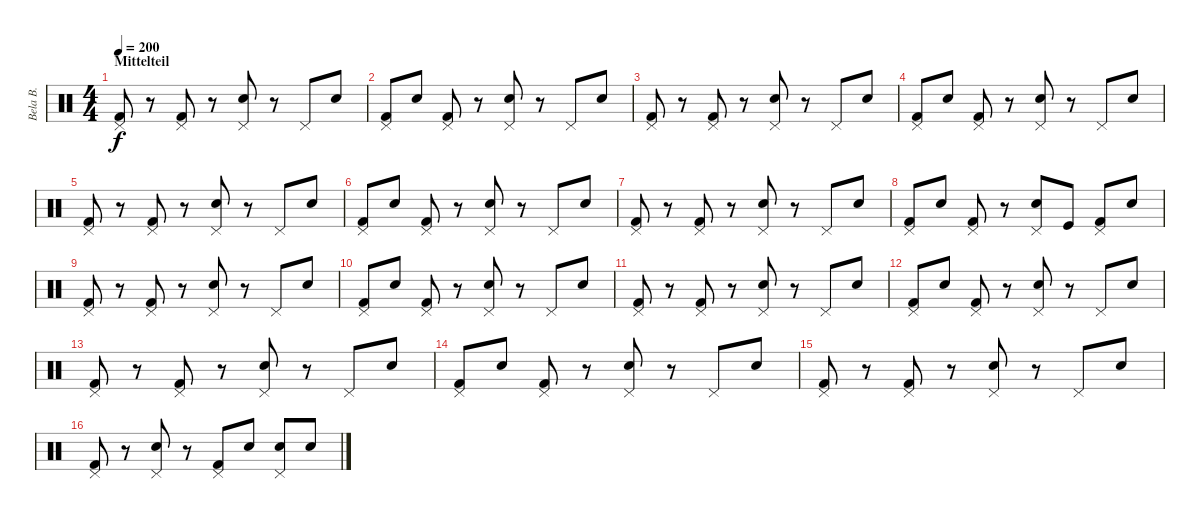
\track ("Bela B. " "Bela B. ") {instrument percussion}
\staff {score}
\articulation defaults
\ts (4 4)
\section ("" "Mittelteil")
\tempo 200
\clef neutral
\ks c
("Pedal Hi-Hat (hit)" "Kick (hit) 2").8{dy f} r.8 ("Pedal Hi-Hat (hit)" "Kick (hit) 2").8 r.8 ("Pedal Hi-Hat (hit)" "Electric Snare (hit)").8 r.8 "Pedal Hi-Hat (hit)".8 "Electric Snare (hit)".8 |
("Pedal Hi-Hat (hit)" "Kick (hit) 2").8 "Electric Snare (hit)".8 ("Pedal Hi-Hat (hit)" "Kick (hit) 2").8 r.8 ("Pedal Hi-Hat (hit)" "Electric Snare (hit)").8 r.8 "Pedal Hi-Hat (hit)".8 "Electric Snare (hit)".8 |
("Pedal Hi-Hat (hit)" "Kick (hit) 2").8 r.8 ("Pedal Hi-Hat (hit)" "Kick (hit) 2").8 r.8 ("Pedal Hi-Hat (hit)" "Electric Snare (hit)").8 r.8 "Pedal Hi-Hat (hit)".8 "Electric Snare (hit)".8 |
("Pedal Hi-Hat (hit)" "Kick (hit) 2").8 "Electric Snare (hit)".8 ("Pedal Hi-Hat (hit)" "Kick (hit) 2").8 r.8 ("Pedal Hi-Hat (hit)" "Electric Snare (hit)").8 r.8 "Pedal Hi-Hat (hit)".8 "Electric Snare (hit)".8 |
("Pedal Hi-Hat (hit)" "Kick (hit) 2").8 r.8 ("Pedal Hi-Hat (hit)" "Kick (hit) 2").8 r.8 ("Pedal Hi-Hat (hit)" "Electric Snare (hit)").8 r.8 "Pedal Hi-Hat (hit)".8 "Electric Snare (hit)".8 |
("Pedal Hi-Hat (hit)" "Kick (hit) 2").8 "Electric Snare (hit)".8 ("Pedal Hi-Hat (hit)" "Kick (hit) 2").8 r.8 ("Pedal Hi-Hat (hit)" "Electric Snare (hit)").8 r.8 "Pedal Hi-Hat (hit)".8 "Electric Snare (hit)".8 |
("Pedal Hi-Hat (hit)" "Kick (hit) 2").8 r.8 ("Pedal Hi-Hat (hit)" "Kick (hit) 2").8 r.8 ("Pedal Hi-Hat (hit)" "Electric Snare (hit)").8 r.8 "Pedal Hi-Hat (hit)".8 "Electric Snare (hit)".8 |
("Pedal Hi-Hat (hit)" "Kick (hit) 2").8 "Electric Snare (hit)".8 ("Pedal Hi-Hat (hit)" "Kick (hit) 2").8 r.8 ("Pedal Hi-Hat (hit)" "Electric Snare (hit)").8 "Kick (hit)".8 ("Pedal Hi-Hat (hit)" "Kick (hit) 2").8 "Electric Snare (hit)".8 |
("Pedal Hi-Hat (hit)" "Kick (hit) 2").8 r.8 ("Pedal Hi-Hat (hit)" "Kick (hit) 2").8 r.8 ("Pedal Hi-Hat (hit)" "Electric Snare (hit)").8 r.8 "Pedal Hi-Hat (hit)".8 "Electric Snare (hit)".8 |
("Pedal Hi-Hat (hit)" "Kick (hit) 2").8 "Electric Snare (hit)".8 ("Pedal Hi-Hat (hit)" "Kick (hit) 2").8 r.8 ("Pedal Hi-Hat (hit)" "Electric Snare (hit)").8 r.8 "Pedal Hi-Hat (hit)".8 "Electric Snare (hit)".8 |
("Pedal Hi-Hat (hit)" "Kick (hit) 2").8 r.8 ("Pedal Hi-Hat (hit)" "Kick (hit) 2").8 r.8 ("Pedal Hi-Hat (hit)" "Electric Snare (hit)").8 r.8 "Pedal Hi-Hat (hit)".8 "Electric Snare (hit)".8 |
("Pedal Hi-Hat (hit)" "Kick (hit) 2").8 "Electric Snare (hit)".8 ("Pedal Hi-Hat (hit)" "Kick (hit) 2").8 r.8 ("Pedal Hi-Hat (hit)" "Electric Snare (hit)").8 r.8 "Pedal Hi-Hat (hit)".8 "Electric Snare (hit)".8 |
("Pedal Hi-Hat (hit)" "Kick (hit) 2").8 r.8 ("Pedal Hi-Hat (hit)" "Kick (hit) 2").8 r.8 ("Pedal Hi-Hat (hit)" "Electric Snare (hit)").8 r.8 "Pedal Hi-Hat (hit)".8 "Electric Snare (hit)".8 |
("Pedal Hi-Hat (hit)" "Kick (hit) 2").8 "Electric Snare (hit)".8 ("Pedal Hi-Hat (hit)" "Kick (hit) 2").8 r.8 ("Pedal Hi-Hat (hit)" "Electric Snare (hit)").8 r.8 "Pedal Hi-Hat (hit)".8 "Electric Snare (hit)".8 |
("Pedal Hi-Hat (hit)" "Kick (hit) 2").8 r.8 ("Pedal Hi-Hat (hit)" "Kick (hit) 2").8 r.8 ("Pedal Hi-Hat (hit)" "Electric Snare (hit)").8 r.8 "Pedal Hi-Hat (hit)".8 "Electric Snare (hit)".8 |
("Pedal Hi-Hat (hit)" "Kick (hit) 2").8 r.8 ("Pedal Hi-Hat (hit)" "Electric Snare (hit)").8 r.8 ("Pedal Hi-Hat (hit)" "Kick (hit) 2").8 "Electric Snare (hit)".8 ("Pedal Hi-Hat (hit)" "Electric Snare (hit)").8 "Electric Snare (hit)".8
